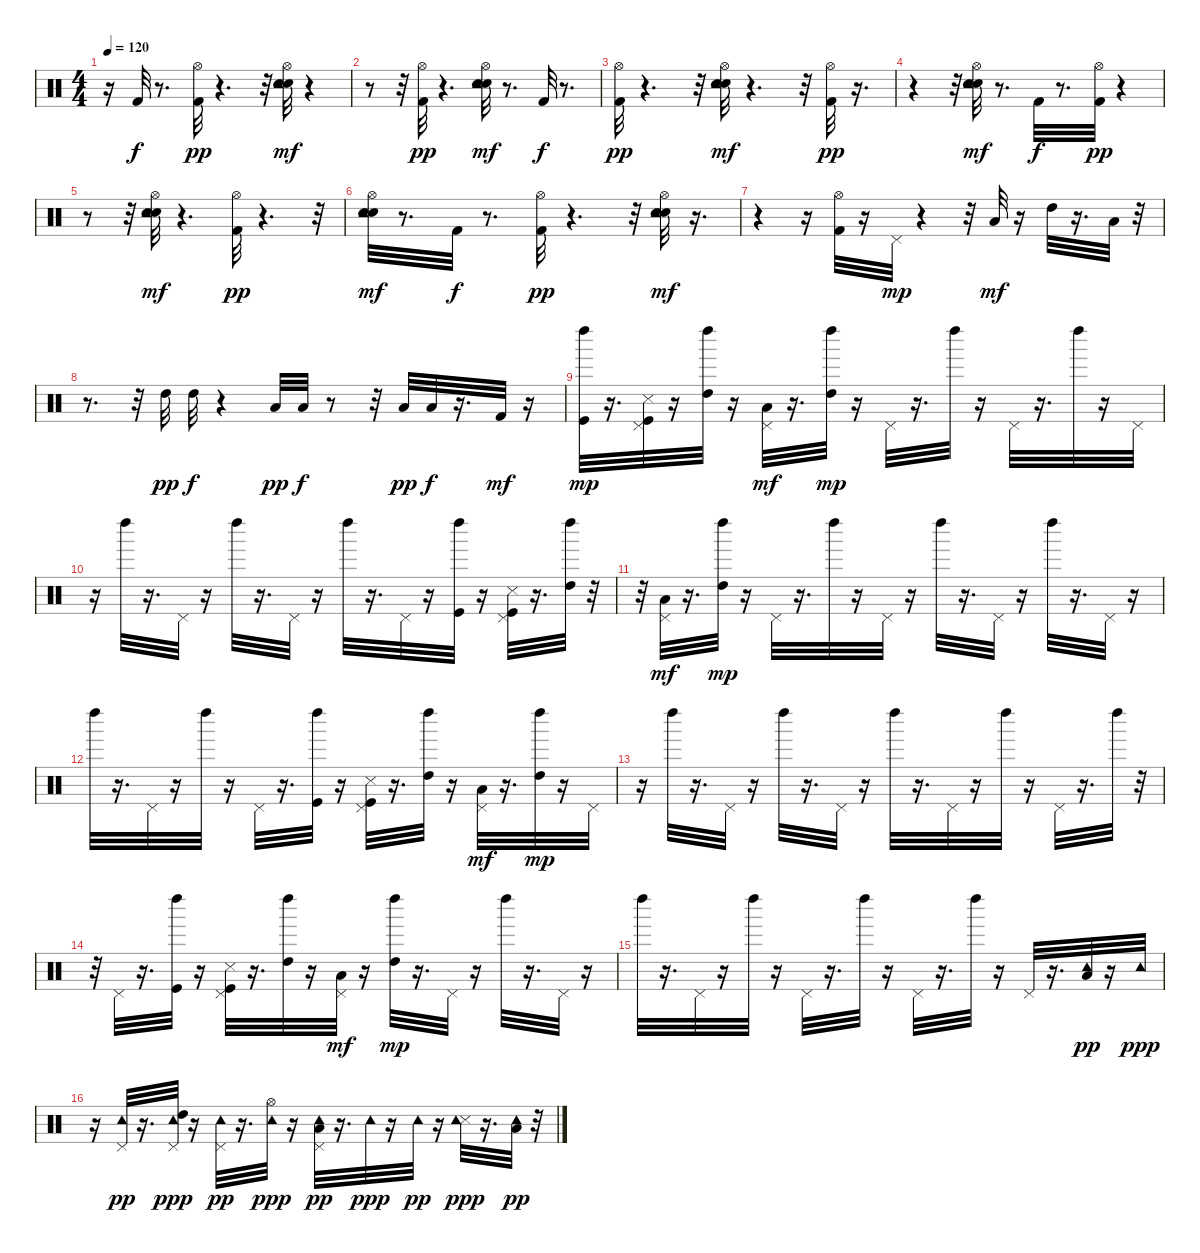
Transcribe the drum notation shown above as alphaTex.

\track "" {instrument percussion}
\staff {score}
\articulation defaults
\ts (4 4)
\tempo 120
\clef neutral
\ks c
r.16{dy mf} "Kick (hit) 2".32{dy f} r.8{d} ("Kick (hit) 2" "Hi-Hat (open)").32{dy pp} r.4{d} r.32 ("Snare (hit) 2" "Electric Snare (hit)" "Hi-Hat (open)" "Tambourine (hit)").32{dy mf} r.4 |
r.8 r.32 ("Kick (hit) 2" "Hi-Hat (open)").32{dy pp} r.4{d} ("Snare (hit) 2" "Electric Snare (hit)" "Hi-Hat (open)" "Tambourine (hit)").32{dy mf} r.8{d} "Kick (hit) 2".32{dy f} r.8{d} |
("Kick (hit) 2" "Hi-Hat (open)").32{dy pp} r.4{d} r.32 ("Snare (hit) 2" "Electric Snare (hit)" "Hi-Hat (open)" "Tambourine (hit)").32{dy mf} r.4{d} r.32 ("Kick (hit) 2" "Hi-Hat (open)").32{dy pp} r.16{d} |
r.4 r.32 ("Snare (hit) 2" "Electric Snare (hit)" "Hi-Hat (open)" "Tambourine (hit)").32{dy mf} r.8{d} "Kick (hit) 2".32{dy f} r.8{d} ("Kick (hit) 2" "Hi-Hat (open)").32{dy pp} r.4 |
r.8 r.32 ("Snare (hit) 2" "Electric Snare (hit)" "Hi-Hat (open)" "Tambourine (hit)").32{dy mf} r.4{d} ("Kick (hit) 2" "Hi-Hat (open)").32{dy pp} r.4{d} r.32 |
("Snare (hit) 2" "Electric Snare (hit)" "Hi-Hat (open)" "Tambourine (hit)").32{dy mf} r.8{d} "Kick (hit) 2".32{dy f} r.8{d} ("Kick (hit) 2" "Hi-Hat (open)").32{dy pp} r.4{d} r.32 ("Snare (hit) 2" "Electric Snare (hit)" "Hi-Hat (open)" "Tambourine (hit)").32{dy mf} r.16{d} |
r.4 r.16 ("Kick (hit) 2" "Hi-Hat (open)").32 r.16 "Pedal Hi-Hat (hit)".32{dy mp} r.4 r.32 "Low Floor Tom (hit)".32{dy mf} r.16 "High Tom (hit)".32 r.16{d} "Low Tom (hit)".32 r.32 |
r.8{d} r.32 "High Tom (hit)".32{dy pp} "High Tom (hit)".32{dy f} r.4 "Low Tom (hit)".32{dy pp} "Low Tom (hit)".32{dy f} r.8 r.32 "Low Floor Tom (hit)".32{dy pp} "Low Floor Tom (hit)".32{dy f} r.16{d} "Kick (hit) 2".32{dy mf} r.16 |
("Kick (hit)" "Left Maraca (hit)").32{dy mp} r.16{d} ("Kick (hit)" "Pedal Hi-Hat (hit)" "Snare (side stick) 3").32 r.16 ("High Tom (hit)" "Left Maraca (hit)").32 r.16 ("Pedal Hi-Hat (hit)" "Low Floor Tom (hit)").32{dy mf} r.16{d} ("High Tom (hit)" "Left Maraca (hit)").32{dy mp} r.16 "Pedal Hi-Hat (hit)".32 r.16{d} "Left Maraca (hit)".32 r.16 "Pedal Hi-Hat (hit)".32 r.16{d} "Left Maraca (hit)".32 r.16 "Pedal Hi-Hat (hit)".32 |
r.16 "Left Maraca (hit)".32 r.16{d} "Pedal Hi-Hat (hit)".32 r.16 "Left Maraca (hit)".32 r.16{d} "Pedal Hi-Hat (hit)".32 r.16 "Left Maraca (hit)".32 r.16{d} "Pedal Hi-Hat (hit)".32 r.16 ("Kick (hit)" "Left Maraca (hit)").32 r.16 ("Kick (hit)" "Pedal Hi-Hat (hit)" "Snare (side stick) 3").32 r.16{d} ("High Tom (hit)" "Left Maraca (hit)").32 r.32 |
r.32 ("Pedal Hi-Hat (hit)" "Low Floor Tom (hit)").32{dy mf} r.16{d} ("High Tom (hit)" "Left Maraca (hit)").32{dy mp} r.16 "Pedal Hi-Hat (hit)".32 r.16{d} "Left Maraca (hit)".32 r.16 "Pedal Hi-Hat (hit)".32 r.16 "Left Maraca (hit)".32 r.16{d} "Pedal Hi-Hat (hit)".32 r.16 "Left Maraca (hit)".32 r.16{d} "Pedal Hi-Hat (hit)".32 r.16 |
"Left Maraca (hit)".32 r.16{d} "Pedal Hi-Hat (hit)".32 r.16 "Left Maraca (hit)".32 r.16 "Pedal Hi-Hat (hit)".32 r.16{d} ("Kick (hit)" "Left Maraca (hit)").32 r.16 ("Kick (hit)" "Pedal Hi-Hat (hit)" "Snare (side stick) 3").32 r.16{d} ("High Tom (hit)" "Left Maraca (hit)").32 r.16 ("Pedal Hi-Hat (hit)" "Low Floor Tom (hit)").32{dy mf} r.16{d} ("High Tom (hit)" "Left Maraca (hit)").32{dy mp} r.16 "Pedal Hi-Hat (hit)".32 |
r.16 "Left Maraca (hit)".32 r.16{d} "Pedal Hi-Hat (hit)".32 r.16 "Left Maraca (hit)".32 r.16{d} "Pedal Hi-Hat (hit)".32 r.16 "Left Maraca (hit)".32 r.16{d} "Pedal Hi-Hat (hit)".32 r.16 "Left Maraca (hit)".32 r.16 "Pedal Hi-Hat (hit)".32 r.16{d} "Left Maraca (hit)".32 r.32 |
r.32 "Pedal Hi-Hat (hit)".32 r.16{d} ("Kick (hit)" "Left Maraca (hit)").32 r.16 ("Kick (hit)" "Pedal Hi-Hat (hit)" "Snare (side stick) 3").32 r.16{d} ("High Tom (hit)" "Left Maraca (hit)").32 r.16 ("Pedal Hi-Hat (hit)" "Low Floor Tom (hit)").32{dy mf} r.16 ("High Tom (hit)" "Left Maraca (hit)").32{dy mp} r.16{d} "Pedal Hi-Hat (hit)".32 r.16 "Left Maraca (hit)".32 r.16{d} "Pedal Hi-Hat (hit)".32 r.16 |
"Left Maraca (hit)".32 r.16{d} "Pedal Hi-Hat (hit)".32 r.16 "Left Maraca (hit)".32 r.16 "Pedal Hi-Hat (hit)".32 r.16{d} "Left Maraca (hit)".32 r.16 "Pedal Hi-Hat (hit)".32 r.16{d} "Left Maraca (hit)".32 r.16 "Pedal Hi-Hat (hit)".32 r.16{d} ("Low Floor Tom (hit)" "Tambourine (hit)").32{dy pp} r.16 "Tambourine (hit)".32{dy ppp} |
r.16 ("Pedal Hi-Hat (hit)" "Tambourine (hit)").32{dy pp} r.16{d} ("Pedal Hi-Hat (hit)" "High Tom (hit)" "Tambourine (hit)").32{dy ppp} r.16 ("Pedal Hi-Hat (hit)" "Tambourine (hit)").32{dy pp} r.16{d} ("Hi-Hat (open)" "Tambourine (hit)").32{dy ppp} r.16 ("Pedal Hi-Hat (hit)" "Low Tom (hit)" "Tambourine (hit)").32{dy pp} r.16{d} "Tambourine (hit)".32{dy ppp} r.16 "Tambourine (hit)".32{dy pp} r.16 ("Snare (side stick) 3" "Tambourine (hit)").32{dy ppp} r.16{d} ("Low Floor Tom (hit)" "Tambourine (hit)").32{dy pp} r.32
